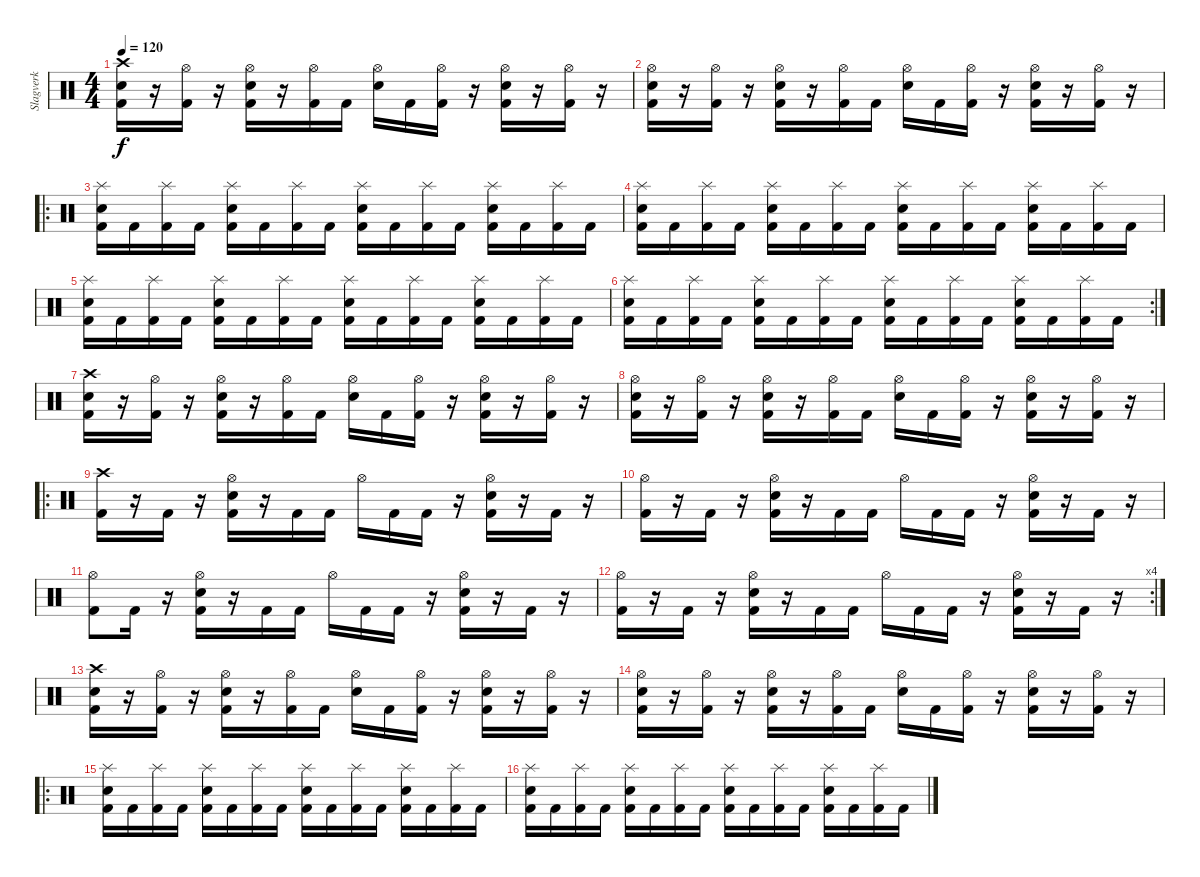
\track ("Slagverk" "Slagverk") {instrument percussion}
\staff {score}
\articulation defaults
\ts (4 4)
\tempo 120
\clef neutral
\ks c
("Kick (hit) 2" "Electric Snare (hit)" "Crash high (hit)").16{dy f} r.16 ("Kick (hit) 2" "Hi-Hat (open)").16 r.16 ("Kick (hit) 2" "Electric Snare (hit)" "Hi-Hat (open)").16 r.16 ("Kick (hit) 2" "Hi-Hat (open)").16 "Kick (hit) 2".16 ("Electric Snare (hit)" "Hi-Hat (open)").16 "Kick (hit) 2".16 ("Kick (hit) 2" "Hi-Hat (open)").16 r.16 ("Kick (hit) 2" "Electric Snare (hit)" "Hi-Hat (open)").16 r.16 ("Kick (hit) 2" "Hi-Hat (open)").16 r.16 |
("Kick (hit) 2" "Electric Snare (hit)" "Hi-Hat (open)").16 r.16 ("Kick (hit) 2" "Hi-Hat (open)").16 r.16 ("Kick (hit) 2" "Electric Snare (hit)" "Hi-Hat (open)").16 r.16 ("Kick (hit) 2" "Hi-Hat (open)").16 "Kick (hit) 2".16 ("Electric Snare (hit)" "Hi-Hat (open)").16 "Kick (hit) 2".16 ("Kick (hit) 2" "Hi-Hat (open)").16 r.16 ("Kick (hit) 2" "Electric Snare (hit)" "Hi-Hat (open)").16 r.16 ("Kick (hit) 2" "Hi-Hat (open)").16 r.16 |
\ro
("Kick (hit) 2" "Electric Snare (hit)" "Splash (hit)").16 "Kick (hit) 2".16 ("Kick (hit) 2" "Splash (hit)").16 "Kick (hit) 2".16 ("Kick (hit) 2" "Electric Snare (hit)" "Splash (hit)").16 "Kick (hit) 2".16 ("Kick (hit) 2" "Splash (hit)").16 "Kick (hit) 2".16 ("Kick (hit) 2" "Electric Snare (hit)" "Splash (hit)").16 "Kick (hit) 2".16 ("Kick (hit) 2" "Splash (hit)").16 "Kick (hit) 2".16 ("Kick (hit) 2" "Electric Snare (hit)" "Splash (hit)").16 "Kick (hit) 2".16 ("Kick (hit) 2" "Splash (hit)").16 "Kick (hit) 2".16 |
("Kick (hit) 2" "Electric Snare (hit)" "Splash (hit)").16 "Kick (hit) 2".16 ("Kick (hit) 2" "Splash (hit)").16 "Kick (hit) 2".16 ("Kick (hit) 2" "Electric Snare (hit)" "Splash (hit)").16 "Kick (hit) 2".16 ("Kick (hit) 2" "Splash (hit)").16 "Kick (hit) 2".16 ("Kick (hit) 2" "Electric Snare (hit)" "Splash (hit)").16 "Kick (hit) 2".16 ("Kick (hit) 2" "Splash (hit)").16 "Kick (hit) 2".16 ("Kick (hit) 2" "Electric Snare (hit)" "Splash (hit)").16 "Kick (hit) 2".16 ("Kick (hit) 2" "Splash (hit)").16 "Kick (hit) 2".16 |
("Kick (hit) 2" "Electric Snare (hit)" "Splash (hit)").16 "Kick (hit) 2".16 ("Kick (hit) 2" "Splash (hit)").16 "Kick (hit) 2".16 ("Kick (hit) 2" "Electric Snare (hit)" "Splash (hit)").16 "Kick (hit) 2".16 ("Kick (hit) 2" "Splash (hit)").16 "Kick (hit) 2".16 ("Kick (hit) 2" "Electric Snare (hit)" "Splash (hit)").16 "Kick (hit) 2".16 ("Kick (hit) 2" "Splash (hit)").16 "Kick (hit) 2".16 ("Kick (hit) 2" "Electric Snare (hit)" "Splash (hit)").16 "Kick (hit) 2".16 ("Kick (hit) 2" "Splash (hit)").16 "Kick (hit) 2".16 |
\rc 2
("Kick (hit) 2" "Electric Snare (hit)" "Splash (hit)").16 "Kick (hit) 2".16 ("Kick (hit) 2" "Splash (hit)").16 "Kick (hit) 2".16 ("Kick (hit) 2" "Electric Snare (hit)" "Splash (hit)").16 "Kick (hit) 2".16 ("Kick (hit) 2" "Splash (hit)").16 "Kick (hit) 2".16 ("Kick (hit) 2" "Electric Snare (hit)" "Splash (hit)").16 "Kick (hit) 2".16 ("Kick (hit) 2" "Splash (hit)").16 "Kick (hit) 2".16 ("Kick (hit) 2" "Electric Snare (hit)" "Splash (hit)").16 "Kick (hit) 2".16 ("Kick (hit) 2" "Splash (hit)").16 "Kick (hit) 2".16 |
("Kick (hit) 2" "Electric Snare (hit)" "Crash high (hit)").16 r.16 ("Kick (hit) 2" "Hi-Hat (open)").16 r.16 ("Kick (hit) 2" "Electric Snare (hit)" "Hi-Hat (open)").16 r.16 ("Kick (hit) 2" "Hi-Hat (open)").16 "Kick (hit) 2".16 ("Electric Snare (hit)" "Hi-Hat (open)").16 "Kick (hit) 2".16 ("Kick (hit) 2" "Hi-Hat (open)").16 r.16 ("Kick (hit) 2" "Electric Snare (hit)" "Hi-Hat (open)").16 r.16 ("Kick (hit) 2" "Hi-Hat (open)").16 r.16 |
("Kick (hit) 2" "Electric Snare (hit)" "Hi-Hat (open)").16 r.16 ("Kick (hit) 2" "Hi-Hat (open)").16 r.16 ("Kick (hit) 2" "Electric Snare (hit)" "Hi-Hat (open)").16 r.16 ("Kick (hit) 2" "Hi-Hat (open)").16 "Kick (hit) 2".16 ("Electric Snare (hit)" "Hi-Hat (open)").16 "Kick (hit) 2".16 ("Kick (hit) 2" "Hi-Hat (open)").16 r.16 ("Kick (hit) 2" "Electric Snare (hit)" "Hi-Hat (open)").16 r.16 ("Kick (hit) 2" "Hi-Hat (open)").16 r.16 |
\ro
("Kick (hit) 2" "Crash high (hit)").16 r.16 "Kick (hit) 2".16 r.16 ("Kick (hit) 2" "Electric Snare (hit)" "Hi-Hat (open)").16 r.16 "Kick (hit) 2".16 "Kick (hit) 2".16 "Hi-Hat (open)".16 "Kick (hit) 2".16 "Kick (hit) 2".16 r.16 ("Kick (hit) 2" "Electric Snare (hit)" "Hi-Hat (open)").16 r.16 "Kick (hit) 2".16 r.16 |
("Kick (hit) 2" "Hi-Hat (open)").16 r.16 "Kick (hit) 2".16 r.16 ("Kick (hit) 2" "Electric Snare (hit)" "Hi-Hat (open)").16 r.16 "Kick (hit) 2".16 "Kick (hit) 2".16 "Hi-Hat (open)".16 "Kick (hit) 2".16 "Kick (hit) 2".16 r.16 ("Kick (hit) 2" "Electric Snare (hit)" "Hi-Hat (open)").16 r.16 "Kick (hit) 2".16 r.16 |
("Kick (hit) 2" "Hi-Hat (open)").8 "Kick (hit) 2".16 r.16 ("Kick (hit) 2" "Electric Snare (hit)" "Hi-Hat (open)").16 r.16 "Kick (hit) 2".16 "Kick (hit) 2".16 "Hi-Hat (open)".16 "Kick (hit) 2".16 "Kick (hit) 2".16 r.16 ("Kick (hit) 2" "Electric Snare (hit)" "Hi-Hat (open)").16 r.16 "Kick (hit) 2".16 r.16 |
\rc 4
("Kick (hit) 2" "Hi-Hat (open)").16 r.16 "Kick (hit) 2".16 r.16 ("Kick (hit) 2" "Electric Snare (hit)" "Hi-Hat (open)").16 r.16 "Kick (hit) 2".16 "Kick (hit) 2".16 "Hi-Hat (open)".16 "Kick (hit) 2".16 "Kick (hit) 2".16 r.16 ("Kick (hit) 2" "Electric Snare (hit)" "Hi-Hat (open)").16 r.16 "Kick (hit) 2".16 r.16 |
("Kick (hit) 2" "Electric Snare (hit)" "Crash high (hit)").16 r.16 ("Kick (hit) 2" "Hi-Hat (open)").16 r.16 ("Kick (hit) 2" "Electric Snare (hit)" "Hi-Hat (open)").16 r.16 ("Kick (hit) 2" "Hi-Hat (open)").16 "Kick (hit) 2".16 ("Electric Snare (hit)" "Hi-Hat (open)").16 "Kick (hit) 2".16 ("Kick (hit) 2" "Hi-Hat (open)").16 r.16 ("Kick (hit) 2" "Electric Snare (hit)" "Hi-Hat (open)").16 r.16 ("Kick (hit) 2" "Hi-Hat (open)").16 r.16 |
("Kick (hit) 2" "Electric Snare (hit)" "Hi-Hat (open)").16 r.16 ("Kick (hit) 2" "Hi-Hat (open)").16 r.16 ("Kick (hit) 2" "Electric Snare (hit)" "Hi-Hat (open)").16 r.16 ("Kick (hit) 2" "Hi-Hat (open)").16 "Kick (hit) 2".16 ("Electric Snare (hit)" "Hi-Hat (open)").16 "Kick (hit) 2".16 ("Kick (hit) 2" "Hi-Hat (open)").16 r.16 ("Kick (hit) 2" "Electric Snare (hit)" "Hi-Hat (open)").16 r.16 ("Kick (hit) 2" "Hi-Hat (open)").16 r.16 |
\ro
("Kick (hit) 2" "Electric Snare (hit)" "Splash (hit)").16 "Kick (hit) 2".16 ("Kick (hit) 2" "Splash (hit)").16 "Kick (hit) 2".16 ("Kick (hit) 2" "Electric Snare (hit)" "Splash (hit)").16 "Kick (hit) 2".16 ("Kick (hit) 2" "Splash (hit)").16 "Kick (hit) 2".16 ("Kick (hit) 2" "Electric Snare (hit)" "Splash (hit)").16 "Kick (hit) 2".16 ("Kick (hit) 2" "Splash (hit)").16 "Kick (hit) 2".16 ("Kick (hit) 2" "Electric Snare (hit)" "Splash (hit)").16 "Kick (hit) 2".16 ("Kick (hit) 2" "Splash (hit)").16 "Kick (hit) 2".16 |
("Kick (hit) 2" "Electric Snare (hit)" "Splash (hit)").16 "Kick (hit) 2".16 ("Kick (hit) 2" "Splash (hit)").16 "Kick (hit) 2".16 ("Kick (hit) 2" "Electric Snare (hit)" "Splash (hit)").16 "Kick (hit) 2".16 ("Kick (hit) 2" "Splash (hit)").16 "Kick (hit) 2".16 ("Kick (hit) 2" "Electric Snare (hit)" "Splash (hit)").16 "Kick (hit) 2".16 ("Kick (hit) 2" "Splash (hit)").16 "Kick (hit) 2".16 ("Kick (hit) 2" "Electric Snare (hit)" "Splash (hit)").16 "Kick (hit) 2".16 ("Kick (hit) 2" "Splash (hit)").16 "Kick (hit) 2".16
